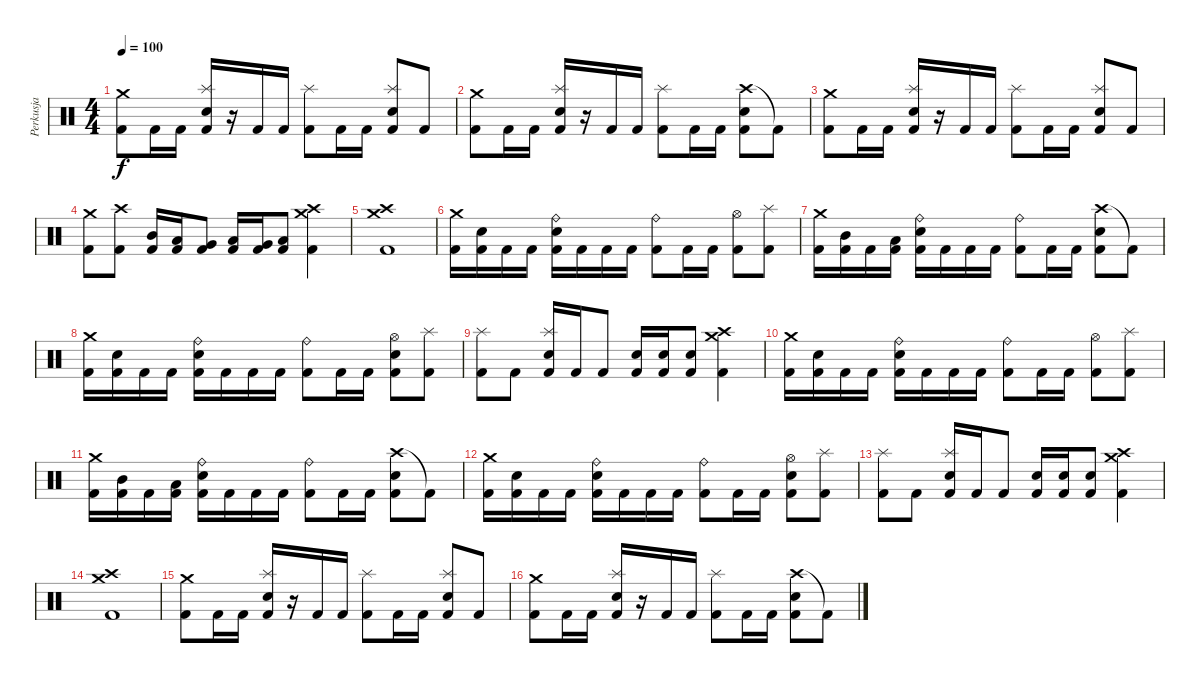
\track ("Perkusja" "Perkusja") {instrument percussion}
\staff {score}
\articulation defaults
\ts (4 4)
\tempo 100
\clef neutral
\ks c
("Crash medium (hit)" "Kick (hit) 2").8{dy f} "Kick (hit) 2".16 "Kick (hit) 2".16 ("Splash (hit)" "Electric Snare (hit)" "Kick (hit) 2").16 r.16 "Kick (hit) 2".16 "Kick (hit) 2".16 ("Splash (hit)" "Kick (hit) 2").8 "Kick (hit) 2".16 "Kick (hit) 2".16 ("Splash (hit)" "Electric Snare (hit)" "Kick (hit) 2").8 "Kick (hit) 2".8 |
("Crash medium (hit)" "Kick (hit) 2").8 "Kick (hit) 2".16 "Kick (hit) 2".16 ("Splash (hit)" "Electric Snare (hit)" "Kick (hit) 2").16 r.16 "Kick (hit) 2".16 "Kick (hit) 2".16 ("Splash (hit)" "Kick (hit) 2").8 "Kick (hit) 2".16 "Kick (hit) 2".16 ("Crash high (hit)" "Electric Snare (hit)" "Kick (hit) 2").8 "Kick (hit) 2"{t}.8 |
("Crash medium (hit)" "Kick (hit) 2").8 "Kick (hit) 2".16 "Kick (hit) 2".16 ("Splash (hit)" "Electric Snare (hit)" "Kick (hit) 2").16 r.16 "Kick (hit) 2".16 "Kick (hit) 2".16 ("Splash (hit)" "Kick (hit) 2").8 "Kick (hit) 2".16 "Kick (hit) 2".16 ("Splash (hit)" "Electric Snare (hit)" "Kick (hit) 2").8 "Kick (hit) 2".8 |
("Crash medium (hit)" "Kick (hit) 2").8 ("Crash high (hit)" "Kick (hit) 2").8 ("Mid Tom (hit)" "Kick (hit) 2").16 ("Low Tom (hit)" "Kick (hit) 2").16 ("Very Low Tom (hit)" "Kick (hit) 2").8 ("Low Tom (hit)" "Kick (hit) 2").16 ("Very Low Tom (hit)" "Kick (hit) 2").16 ("Low Floor Tom (hit)" "Kick (hit) 2").8 ("Crash medium (hit)" "Crash high (hit)" "Kick (hit) 2").4 |
("Crash medium (hit)" "Crash high (hit)" "Kick (hit) 2").1 |
("Crash medium (hit)" "Kick (hit) 2").16 ("Electric Snare (hit)" "Kick (hit) 2").16 "Kick (hit) 2".16 "Kick (hit) 2".16 ("Ride (bell)" "Electric Snare (hit)" "Kick (hit) 2").16 "Kick (hit) 2".16 "Kick (hit) 2".16 "Kick (hit) 2".16 ("Ride (bell)" "Kick (hit) 2").8 "Kick (hit) 2".16 "Kick (hit) 2".16 ("Hi-Hat (open)" "Kick (hit) 2").8 ("Splash (hit)" "Kick (hit) 2").8 |
("Crash medium (hit)" "Kick (hit) 2").16 ("Mid Tom (hit)" "Kick (hit) 2").16 "Kick (hit) 2".16 ("Low Tom (hit)" "Kick (hit) 2").16 ("Ride (bell)" "Electric Snare (hit)" "Kick (hit) 2").16 "Kick (hit) 2".16 "Kick (hit) 2".16 "Kick (hit) 2".16 ("Ride (bell)" "Kick (hit) 2").8 "Kick (hit) 2".16 "Kick (hit) 2".16 ("Crash high (hit)" "Electric Snare (hit)" "Kick (hit) 2").8 "Kick (hit) 2"{t}.8 |
("Crash medium (hit)" "Kick (hit) 2").16 ("Electric Snare (hit)" "Kick (hit) 2").16 "Kick (hit) 2".16 "Kick (hit) 2".16 ("Ride (bell)" "Electric Snare (hit)" "Kick (hit) 2").16 "Kick (hit) 2".16 "Kick (hit) 2".16 "Kick (hit) 2".16 ("Ride (bell)" "Kick (hit) 2").8 "Kick (hit) 2".16 "Kick (hit) 2".16 ("Hi-Hat (open)" "Electric Snare (hit)" "Kick (hit) 2").8 ("Splash (hit)" "Kick (hit) 2").8 |
("Splash (hit)" "Kick (hit) 2").8 "Kick (hit) 2".8 ("Splash (hit)" "Electric Snare (hit)" "Kick (hit) 2").16 "Kick (hit) 2".16 "Kick (hit) 2".8 ("Electric Snare (hit)" "Kick (hit) 2").16 ("Electric Snare (hit)" "Kick (hit) 2").16 ("Electric Snare (hit)" "Kick (hit) 2").8 ("Crash medium (hit)" "Crash high (hit)" "Kick (hit) 2").4 |
("Crash medium (hit)" "Kick (hit) 2").16 ("Electric Snare (hit)" "Kick (hit) 2").16 "Kick (hit) 2".16 "Kick (hit) 2".16 ("Ride (bell)" "Electric Snare (hit)" "Kick (hit) 2").16 "Kick (hit) 2".16 "Kick (hit) 2".16 "Kick (hit) 2".16 ("Ride (bell)" "Kick (hit) 2").8 "Kick (hit) 2".16 "Kick (hit) 2".16 ("Hi-Hat (open)" "Kick (hit) 2").8 ("Splash (hit)" "Kick (hit) 2").8 |
("Crash medium (hit)" "Kick (hit) 2").16 ("Mid Tom (hit)" "Kick (hit) 2").16 "Kick (hit) 2".16 ("Low Tom (hit)" "Kick (hit) 2").16 ("Ride (bell)" "Electric Snare (hit)" "Kick (hit) 2").16 "Kick (hit) 2".16 "Kick (hit) 2".16 "Kick (hit) 2".16 ("Ride (bell)" "Kick (hit) 2").8 "Kick (hit) 2".16 "Kick (hit) 2".16 ("Crash high (hit)" "Electric Snare (hit)" "Kick (hit) 2").8 "Kick (hit) 2"{t}.8 |
("Crash medium (hit)" "Kick (hit) 2").16 ("Electric Snare (hit)" "Kick (hit) 2").16 "Kick (hit) 2".16 "Kick (hit) 2".16 ("Ride (bell)" "Electric Snare (hit)" "Kick (hit) 2").16 "Kick (hit) 2".16 "Kick (hit) 2".16 "Kick (hit) 2".16 ("Ride (bell)" "Kick (hit) 2").8 "Kick (hit) 2".16 "Kick (hit) 2".16 ("Hi-Hat (open)" "Electric Snare (hit)" "Kick (hit) 2").8 ("Splash (hit)" "Kick (hit) 2").8 |
("Splash (hit)" "Kick (hit) 2").8 "Kick (hit) 2".8 ("Splash (hit)" "Electric Snare (hit)" "Kick (hit) 2").16 "Kick (hit) 2".16 "Kick (hit) 2".8 ("Electric Snare (hit)" "Kick (hit) 2").16 ("Electric Snare (hit)" "Kick (hit) 2").16 ("Electric Snare (hit)" "Kick (hit) 2").8 ("Crash medium (hit)" "Crash high (hit)" "Kick (hit) 2").4 |
("Crash medium (hit)" "Crash high (hit)" "Kick (hit) 2").1 |
("Crash medium (hit)" "Kick (hit) 2").8 "Kick (hit) 2".16 "Kick (hit) 2".16 ("Splash (hit)" "Electric Snare (hit)" "Kick (hit) 2").16 r.16 "Kick (hit) 2".16 "Kick (hit) 2".16 ("Splash (hit)" "Kick (hit) 2").8 "Kick (hit) 2".16 "Kick (hit) 2".16 ("Splash (hit)" "Electric Snare (hit)" "Kick (hit) 2").8 "Kick (hit) 2".8 |
("Crash medium (hit)" "Kick (hit) 2").8 "Kick (hit) 2".16 "Kick (hit) 2".16 ("Splash (hit)" "Electric Snare (hit)" "Kick (hit) 2").16 r.16 "Kick (hit) 2".16 "Kick (hit) 2".16 ("Splash (hit)" "Kick (hit) 2").8 "Kick (hit) 2".16 "Kick (hit) 2".16 ("Crash high (hit)" "Electric Snare (hit)" "Kick (hit) 2").8 "Kick (hit) 2"{t}.8
